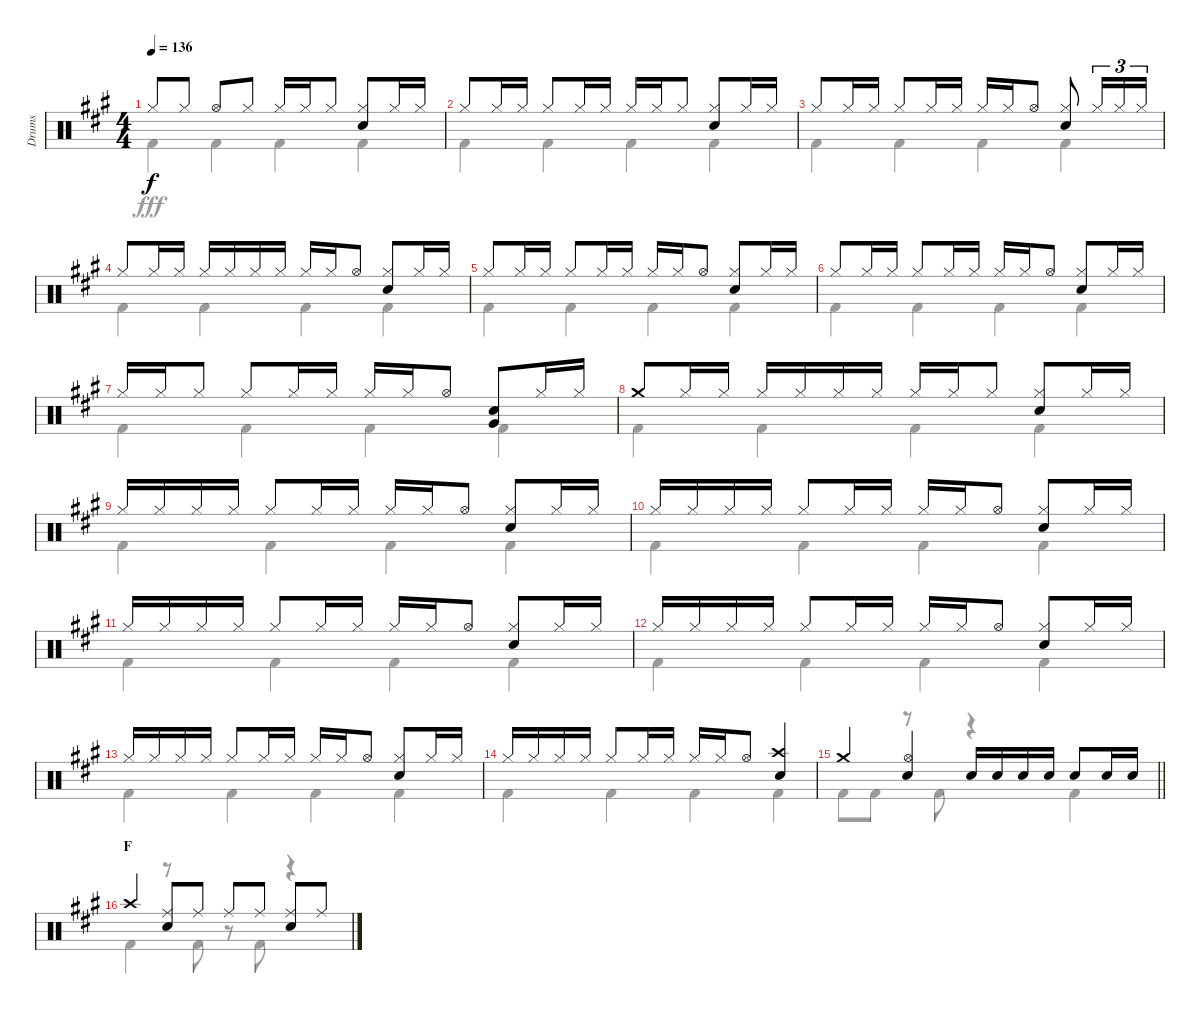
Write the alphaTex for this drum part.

\track ("Drums" "Drums") {instrument percussion}
\staff {score}
\articulation defaults
\voice
\ts (4 4)
\tempo 136
\clef neutral
\ks a "Hi-Hat (closed)".8{dy f} "Hi-Hat (closed)".8 "Hi-Hat (open)".8 "Hi-Hat (closed)".8 "Hi-Hat (closed)".16 "Hi-Hat (closed)".16 "Hi-Hat (closed)".8
("Hi-Hat (closed)" "Snare (hit) 2").8 "Hi-Hat (closed)".16 "Hi-Hat (closed)".16 |
"Hi-Hat (closed)".8 "Hi-Hat (closed)".16 "Hi-Hat (closed)".16 "Hi-Hat (closed)".8 "Hi-Hat (closed)".16 "Hi-Hat (closed)".16 "Hi-Hat (closed)".16 "Hi-Hat (closed)".16 "Hi-Hat (closed)".8 ("Hi-Hat (closed)" "Snare (hit) 2").8 "Hi-Hat (closed)".16 "Hi-Hat (closed)".16 |
"Hi-Hat (closed)".8 "Hi-Hat (closed)".16 "Hi-Hat (closed)".16 "Hi-Hat (closed)".8 "Hi-Hat (closed)".16 "Hi-Hat (closed)".16 "Hi-Hat (closed)".16 "Hi-Hat (closed)".16 "Hi-Hat (open)".8 ("Hi-Hat (closed)" "Snare (hit) 2").8 "Hi-Hat (closed)".16{tu (3 2)} "Hi-Hat (closed)".16{tu (3 2)} "Hi-Hat (closed)".16{tu (3 2)} |
"Hi-Hat (closed)".8 "Hi-Hat (closed)".16 "Hi-Hat (closed)".16 "Hi-Hat (closed)".16 "Hi-Hat (closed)".16 "Hi-Hat (closed)".16 "Hi-Hat (closed)".16 "Hi-Hat (closed)".16 "Hi-Hat (closed)".16 "Hi-Hat (open)".8 ("Hi-Hat (closed)" "Snare (hit) 2").8 "Hi-Hat (closed)".16 "Hi-Hat (closed)".16 |
"Hi-Hat (closed)".8 "Hi-Hat (closed)".16 "Hi-Hat (closed)".16 "Hi-Hat (closed)".8 "Hi-Hat (closed)".16 "Hi-Hat (closed)".16 "Hi-Hat (closed)".16 "Hi-Hat (closed)".16 "Hi-Hat (open)".8 ("Hi-Hat (closed)" "Snare (hit) 2").8 "Hi-Hat (closed)".16 "Hi-Hat (closed)".16 |
"Hi-Hat (closed)".8 "Hi-Hat (closed)".16 "Hi-Hat (closed)".16 "Hi-Hat (closed)".8 "Hi-Hat (closed)".16 "Hi-Hat (closed)".16 "Hi-Hat (closed)".16 "Hi-Hat (closed)".16 "Hi-Hat (open)".8 ("Hi-Hat (closed)" "Snare (hit) 2").8 "Hi-Hat (closed)".16 "Hi-Hat (closed)".16 |
"Hi-Hat (closed)".16 "Hi-Hat (closed)".16 "Hi-Hat (closed)".8 "Hi-Hat (closed)".8 "Hi-Hat (closed)".16 "Hi-Hat (closed)".16 "Hi-Hat (closed)".16 "Hi-Hat (closed)".16 "Hi-Hat (open)".8 ("Snare (hit) 2" "Very Low Tom (hit)").8 "Hi-Hat (closed)".16 "Hi-Hat (closed)".16 |
"Crash medium (hit)".8 "Hi-Hat (closed)".16 "Hi-Hat (closed)".16 "Hi-Hat (closed)".16 "Hi-Hat (closed)".16 "Hi-Hat (closed)".16 "Hi-Hat (closed)".16 "Hi-Hat (closed)".16 "Hi-Hat (closed)".16 "Hi-Hat (closed)".8 ("Hi-Hat (closed)" "Snare (hit) 2").8 "Hi-Hat (closed)".16 "Hi-Hat (closed)".16 |
"Hi-Hat (closed)".16 "Hi-Hat (closed)".16 "Hi-Hat (closed)".16 "Hi-Hat (closed)".16 "Hi-Hat (closed)".8 "Hi-Hat (closed)".16 "Hi-Hat (closed)".16 "Hi-Hat (closed)".16 "Hi-Hat (closed)".16 "Hi-Hat (open)".8 ("Hi-Hat (closed)" "Snare (hit) 2").8 "Hi-Hat (closed)".16 "Hi-Hat (closed)".16 |
"Hi-Hat (closed)".16 "Hi-Hat (closed)".16 "Hi-Hat (closed)".16 "Hi-Hat (closed)".16 "Hi-Hat (closed)".8 "Hi-Hat (closed)".16 "Hi-Hat (closed)".16 "Hi-Hat (closed)".16 "Hi-Hat (closed)".16 "Hi-Hat (open)".8 ("Hi-Hat (closed)" "Snare (hit) 2").8 "Hi-Hat (closed)".16 "Hi-Hat (closed)".16 |
"Hi-Hat (closed)".16 "Hi-Hat (closed)".16 "Hi-Hat (closed)".16 "Hi-Hat (closed)".16 "Hi-Hat (closed)".8 "Hi-Hat (closed)".16 "Hi-Hat (closed)".16 "Hi-Hat (closed)".16 "Hi-Hat (closed)".16 "Hi-Hat (open)".8 ("Hi-Hat (closed)" "Snare (hit) 2").8 "Hi-Hat (closed)".16 "Hi-Hat (closed)".16 |
"Hi-Hat (closed)".16 "Hi-Hat (closed)".16 "Hi-Hat (closed)".16 "Hi-Hat (closed)".16 "Hi-Hat (closed)".8 "Hi-Hat (closed)".16 "Hi-Hat (closed)".16 "Hi-Hat (closed)".16 "Hi-Hat (closed)".16 "Hi-Hat (open)".8 ("Hi-Hat (closed)" "Snare (hit) 2").8 "Hi-Hat (closed)".16 "Hi-Hat (closed)".16 |
"Hi-Hat (closed)".16 "Hi-Hat (closed)".16 "Hi-Hat (closed)".16 "Hi-Hat (closed)".16 "Hi-Hat (closed)".8 "Hi-Hat (closed)".16 "Hi-Hat (closed)".16 "Hi-Hat (closed)".16 "Hi-Hat (closed)".16 "Hi-Hat (open)".8 ("Hi-Hat (closed)" "Snare (hit) 2").8 "Hi-Hat (closed)".16 "Hi-Hat (closed)".16 |
"Hi-Hat (closed)".16 "Hi-Hat (closed)".16 "Hi-Hat (closed)".16 "Hi-Hat (closed)".16 "Hi-Hat (closed)".8 "Hi-Hat (closed)".16 "Hi-Hat (closed)".16 "Hi-Hat (closed)".16 "Hi-Hat (closed)".16 "Hi-Hat (open)".8 ("Crash high (hit)" "Snare (hit) 2").4 |
\barLineRight lightlight "Crash medium (hit)".4
("Hi-Hat (open)" "Snare (hit) 2").4 "Snare (hit) 2".16 "Snare (hit) 2".16 "Snare (hit) 2".16 "Snare (hit) 2".16 "Snare (hit) 2".8 "Snare (hit) 2".16 "Snare (hit) 2".16 |
\section ("" "F")
"Crash high (hit)".4 ("Ride (middle)" "Snare (hit) 2").8 "Ride (middle)".8 "Ride (middle)".8 "Ride (middle)".8 ("Ride (middle)" "Snare (hit) 2").8 "Ride (middle)".8
\voice
\clef neutral
\ottava regular
\simile none
\ks a "Kick (hit) 2".4{dy fff} "Kick (hit) 2".4 "Kick (hit) 2".4 "Kick (hit) 2".4
|
"Kick (hit) 2".4 "Kick (hit) 2".4 "Kick (hit) 2".4 "Kick (hit) 2".4 |
"Kick (hit) 2".4 "Kick (hit) 2".4 "Kick (hit) 2".4 "Kick (hit) 2".4 |
"Kick (hit) 2".4 "Kick (hit) 2".4 "Kick (hit) 2".4 "Kick (hit) 2".4 |
"Kick (hit) 2".4 "Kick (hit) 2".4 "Kick (hit) 2".4 "Kick (hit) 2".4 |
"Kick (hit) 2".4 "Kick (hit) 2".4 "Kick (hit) 2".4 "Kick (hit) 2".4 |
"Kick (hit) 2".4 "Kick (hit) 2".4 "Kick (hit) 2".4 "Kick (hit) 2".4 |
"Kick (hit) 2".4 "Kick (hit) 2".4 "Kick (hit) 2".4 "Kick (hit) 2".4 |
"Kick (hit) 2".4 "Kick (hit) 2".4 "Kick (hit) 2".4 "Kick (hit) 2".4 |
"Kick (hit) 2".4 "Kick (hit) 2".4 "Kick (hit) 2".4 "Kick (hit) 2".4 |
"Kick (hit) 2".4 "Kick (hit) 2".4 "Kick (hit) 2".4 "Kick (hit) 2".4 |
"Kick (hit) 2".4 "Kick (hit) 2".4 "Kick (hit) 2".4 "Kick (hit) 2".4 |
"Kick (hit) 2".4 "Kick (hit) 2".4 "Kick (hit) 2".4 "Kick (hit) 2".4 |
"Kick (hit) 2".4 "Kick (hit) 2".4 "Kick (hit) 2".4 "Kick (hit) 2".4 |
\barLineRight lightlight "Kick (hit) 2".8 "Kick (hit) 2".8
r.8 "Kick (hit) 2".8 r.4 "Kick (hit) 2".4 |
"Kick (hit) 2".4 r.8 "Kick (hit) 2".8 r.8 "Kick (hit) 2".8 r.4
